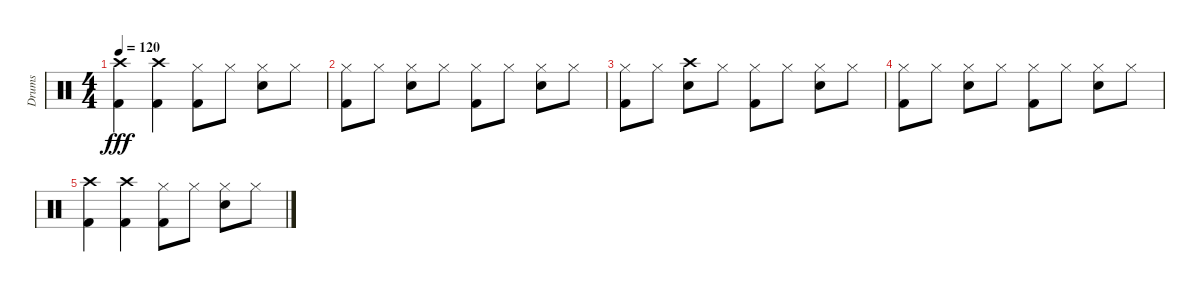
\track ("Drums" "Drums") {instrument percussion}
\staff {score}
\articulation defaults
\ts (4 4)
\tempo 120
\clef neutral
\ks c
("Crash high (hit)" "Kick (hit) 2").4{dy fff} ("Crash high (hit)" "Kick (hit) 2").4 ("Hi-Hat (closed)" "Kick (hit) 2").8 "Hi-Hat (closed)".8 ("Hi-Hat (closed)" "Electric Snare (hit)").8 "Hi-Hat (closed)".8 |
("Hi-Hat (closed)" "Kick (hit) 2").8 "Hi-Hat (closed)".8 ("Hi-Hat (closed)" "Electric Snare (hit)").8 "Hi-Hat (closed)".8 ("Hi-Hat (closed)" "Kick (hit) 2").8 "Hi-Hat (closed)".8 ("Hi-Hat (closed)" "Electric Snare (hit)").8 "Hi-Hat (closed)".8 |
("Hi-Hat (closed)" "Kick (hit) 2").8 "Hi-Hat (closed)".8 ("Crash high (hit)" "Electric Snare (hit)").8 "Hi-Hat (closed)".8 ("Hi-Hat (closed)" "Kick (hit) 2").8 "Hi-Hat (closed)".8 ("Hi-Hat (closed)" "Electric Snare (hit)").8 "Hi-Hat (closed)".8 |
("Hi-Hat (closed)" "Kick (hit) 2").8 "Hi-Hat (closed)".8 ("Hi-Hat (closed)" "Electric Snare (hit)").8 "Hi-Hat (closed)".8 ("Hi-Hat (closed)" "Kick (hit) 2").8 "Hi-Hat (closed)".8 ("Hi-Hat (closed)" "Electric Snare (hit)").8 "Hi-Hat (closed)".8 |
("Crash high (hit)" "Kick (hit) 2").4 ("Crash high (hit)" "Kick (hit) 2").4 ("Hi-Hat (closed)" "Kick (hit) 2").8 "Hi-Hat (closed)".8 ("Hi-Hat (closed)" "Electric Snare (hit)").8 "Hi-Hat (closed)".8
